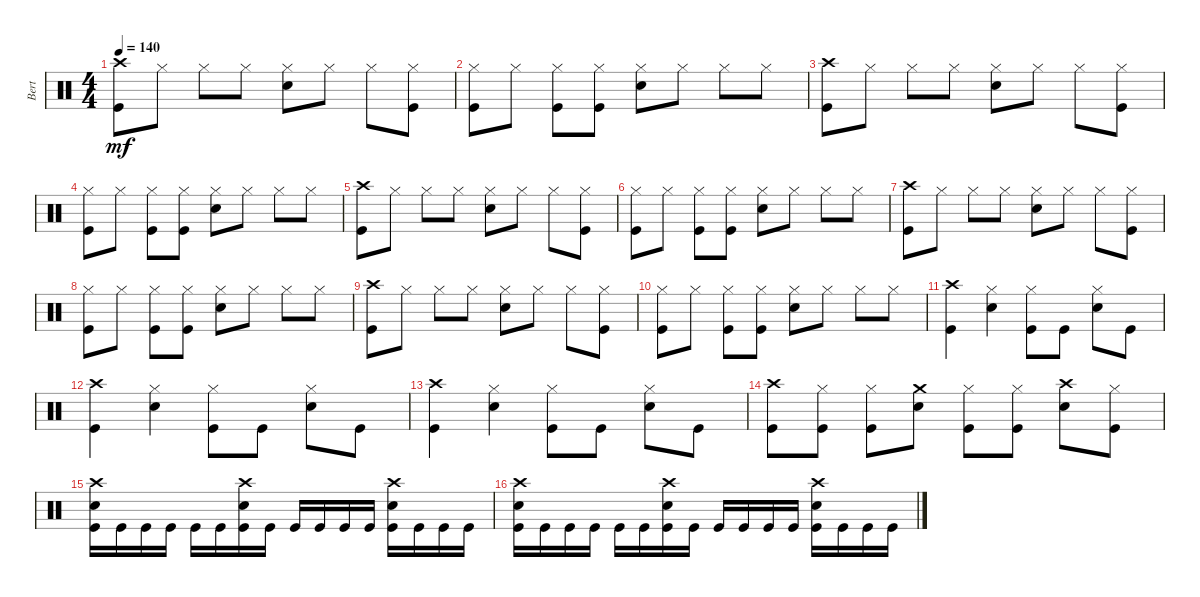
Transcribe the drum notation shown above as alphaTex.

\track ("Bert" "Bert") {instrument percussion}
\staff {score}
\articulation defaults
\ts (4 4)
\tempo 140
\clef neutral
\ks c
("Crash high (hit)" "Kick (hit)").8{dy mf} "Hi-Hat (closed)".8 "Hi-Hat (closed)".8 "Hi-Hat (closed)".8 ("Electric Snare (hit)" "Hi-Hat (closed)").8 "Hi-Hat (closed)".8 "Hi-Hat (closed)".8 ("Hi-Hat (closed)" "Kick (hit)").8 |
("Kick (hit)" "Hi-Hat (closed)").8 "Hi-Hat (closed)".8 ("Kick (hit)" "Hi-Hat (closed)").8 ("Kick (hit)" "Hi-Hat (closed)").8 ("Hi-Hat (closed)" "Electric Snare (hit)").8 "Hi-Hat (closed)".8 "Hi-Hat (closed)".8 "Hi-Hat (closed)".8 |
("Crash high (hit)" "Kick (hit)").8 "Hi-Hat (closed)".8 "Hi-Hat (closed)".8 "Hi-Hat (closed)".8 ("Electric Snare (hit)" "Hi-Hat (closed)").8 "Hi-Hat (closed)".8 "Hi-Hat (closed)".8 ("Hi-Hat (closed)" "Kick (hit)").8 |
("Hi-Hat (closed)" "Kick (hit)").8 "Hi-Hat (closed)".8 ("Kick (hit)" "Hi-Hat (closed)").8 ("Kick (hit)" "Hi-Hat (closed)").8 ("Electric Snare (hit)" "Hi-Hat (closed)").8 "Hi-Hat (closed)".8 "Hi-Hat (closed)".8 "Hi-Hat (closed)".8 |
("Kick (hit)" "Crash high (hit)").8 "Hi-Hat (closed)".8 "Hi-Hat (closed)".8 "Hi-Hat (closed)".8 ("Electric Snare (hit)" "Hi-Hat (closed)").8 "Hi-Hat (closed)".8 "Hi-Hat (closed)".8 ("Kick (hit)" "Hi-Hat (closed)").8 |
("Hi-Hat (closed)" "Kick (hit)").8 "Hi-Hat (closed)".8 ("Hi-Hat (closed)" "Kick (hit)").8 ("Hi-Hat (closed)" "Kick (hit)").8 ("Hi-Hat (closed)" "Electric Snare (hit)").8 "Hi-Hat (closed)".8 "Hi-Hat (closed)".8 "Hi-Hat (closed)".8 |
("Kick (hit)" "Crash high (hit)").8 "Hi-Hat (closed)".8 "Hi-Hat (closed)".8 "Hi-Hat (closed)".8 ("Hi-Hat (closed)" "Electric Snare (hit)").8 "Hi-Hat (closed)".8 "Hi-Hat (closed)".8 ("Hi-Hat (closed)" "Kick (hit)").8 |
("Hi-Hat (closed)" "Kick (hit)").8 "Hi-Hat (closed)".8 ("Hi-Hat (closed)" "Kick (hit)").8 ("Hi-Hat (closed)" "Kick (hit)").8 ("Hi-Hat (closed)" "Electric Snare (hit)").8 "Hi-Hat (closed)".8 "Hi-Hat (closed)".8 "Hi-Hat (closed)".8 |
("Kick (hit)" "Crash high (hit)").8 "Hi-Hat (closed)".8 "Hi-Hat (closed)".8 "Hi-Hat (closed)".8 ("Hi-Hat (closed)" "Electric Snare (hit)").8 "Hi-Hat (closed)".8 "Hi-Hat (closed)".8 ("Hi-Hat (closed)" "Kick (hit)").8 |
("Hi-Hat (closed)" "Kick (hit)").8 "Hi-Hat (closed)".8 ("Hi-Hat (closed)" "Kick (hit)").8 ("Hi-Hat (closed)" "Kick (hit)").8 ("Hi-Hat (closed)" "Electric Snare (hit)").8 "Hi-Hat (closed)".8 "Hi-Hat (closed)".8 "Hi-Hat (closed)".8 |
("Kick (hit)" "Crash high (hit)").4 ("Hi-Hat (closed)" "Electric Snare (hit)").4 ("Kick (hit)" "Hi-Hat (closed)").8 "Kick (hit)".8 ("Hi-Hat (closed)" "Electric Snare (hit)").8 "Kick (hit)".8 |
("Kick (hit)" "Crash high (hit)").4 ("Hi-Hat (closed)" "Electric Snare (hit)").4 ("Hi-Hat (closed)" "Kick (hit)").8 "Kick (hit)".8 ("Electric Snare (hit)" "Hi-Hat (closed)").8 "Kick (hit)".8 |
("Kick (hit)" "Crash high (hit)").4 ("Hi-Hat (closed)" "Electric Snare (hit)").4 ("Hi-Hat (closed)" "Kick (hit)").8 "Kick (hit)".8 ("Electric Snare (hit)" "Hi-Hat (closed)").8 "Kick (hit)".8 |
("Crash high (hit)" "Kick (hit)").8 ("Hi-Hat (closed)" "Kick (hit)").8 ("Hi-Hat (closed)" "Kick (hit)").8 ("Crash medium (hit)" "Electric Snare (hit)").8 ("Kick (hit)" "Hi-Hat (closed)").8 ("Hi-Hat (closed)" "Kick (hit)").8 ("Electric Snare (hit)" "Crash high (hit)").8 ("Hi-Hat (closed)" "Kick (hit)").8 |
("Kick (hit)" "Crash high (hit)" "Electric Snare (hit)").16 "Kick (hit)".16 "Kick (hit)".16 "Kick (hit)".16 "Kick (hit)".16 "Kick (hit)".16 ("Crash high (hit)" "Electric Snare (hit)" "Kick (hit)").16 "Kick (hit)".16 "Kick (hit)".16 "Kick (hit)".16 "Kick (hit)".16 "Kick (hit)".16 ("Electric Snare (hit)" "Crash high (hit)" "Kick (hit)").16 "Kick (hit)".16 "Kick (hit)".16 "Kick (hit)".16 |
("Kick (hit)" "Crash high (hit)" "Electric Snare (hit)").16 "Kick (hit)".16 "Kick (hit)".16 "Kick (hit)".16 "Kick (hit)".16 "Kick (hit)".16 ("Crash high (hit)" "Electric Snare (hit)" "Kick (hit)").16 "Kick (hit)".16 "Kick (hit)".16 "Kick (hit)".16 "Kick (hit)".16 "Kick (hit)".16 ("Crash high (hit)" "Electric Snare (hit)" "Kick (hit)").16 "Kick (hit)".16 "Kick (hit)".16 "Kick (hit)".16
